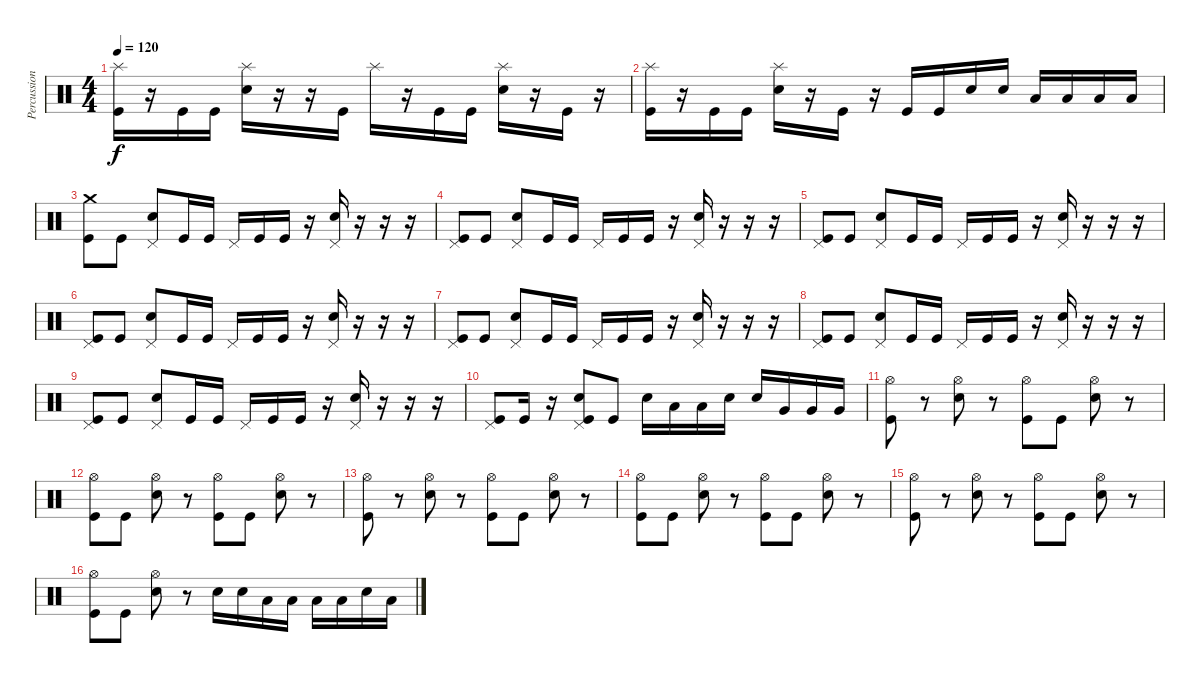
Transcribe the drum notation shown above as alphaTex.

\track ("Percussion" "Percussion") {instrument percussion}
\staff {score}
\articulation defaults
\ts (4 4)
\tempo 120
\clef neutral
\ks c
("Splash (hit)" "Kick (hit)").16{dy f} r.16 "Kick (hit)".16 "Kick (hit)".16 ("Splash (hit)" "Electric Snare (hit)").16 r.16 r.16 "Kick (hit)".16 "Splash (hit)".16 r.16 "Kick (hit)".16 "Kick (hit)".16 ("Splash (hit)" "Electric Snare (hit)").16 r.16 "Kick (hit)".16 r.16 |
("Splash (hit)" "Kick (hit)").16 r.16 "Kick (hit)".16 "Kick (hit)".16 ("Splash (hit)" "Electric Snare (hit)").16 r.16 "Kick (hit)".16 r.16 "Kick (hit)".16 "Kick (hit)".16 "Electric Snare (hit)".16 "Electric Snare (hit)".16 "Low Tom (hit)".16 "Low Tom (hit)".16 "Low Tom (hit)".16 "Low Tom (hit)".16 |
("Crash medium (hit)" "Kick (hit)").8 "Kick (hit)".8 ("Pedal Hi-Hat (hit)" "Electric Snare (hit)").8 "Kick (hit)".16 "Kick (hit)".16 "Pedal Hi-Hat (hit)".16 "Kick (hit)".16 "Kick (hit)".16 r.16 ("Pedal Hi-Hat (hit)" "Electric Snare (hit)").16 r.16 r.16 r.16 |
("Pedal Hi-Hat (hit)" "Kick (hit)").8 "Kick (hit)".8 ("Pedal Hi-Hat (hit)" "Electric Snare (hit)").8 "Kick (hit)".16 "Kick (hit)".16 "Pedal Hi-Hat (hit)".16 "Kick (hit)".16 "Kick (hit)".16 r.16 ("Pedal Hi-Hat (hit)" "Electric Snare (hit)").16 r.16 r.16 r.16 |
("Pedal Hi-Hat (hit)" "Kick (hit)").8 "Kick (hit)".8 ("Pedal Hi-Hat (hit)" "Electric Snare (hit)").8 "Kick (hit)".16 "Kick (hit)".16 "Pedal Hi-Hat (hit)".16 "Kick (hit)".16 "Kick (hit)".16 r.16 ("Pedal Hi-Hat (hit)" "Electric Snare (hit)").16 r.16 r.16 r.16 |
("Pedal Hi-Hat (hit)" "Kick (hit)").8 "Kick (hit)".8 ("Pedal Hi-Hat (hit)" "Electric Snare (hit)").8 "Kick (hit)".16 "Kick (hit)".16 "Pedal Hi-Hat (hit)".16 "Kick (hit)".16 "Kick (hit)".16 r.16 ("Pedal Hi-Hat (hit)" "Electric Snare (hit)").16 r.16 r.16 r.16 |
("Pedal Hi-Hat (hit)" "Kick (hit)").8 "Kick (hit)".8 ("Pedal Hi-Hat (hit)" "Electric Snare (hit)").8 "Kick (hit)".16 "Kick (hit)".16 "Pedal Hi-Hat (hit)".16 "Kick (hit)".16 "Kick (hit)".16 r.16 ("Pedal Hi-Hat (hit)" "Electric Snare (hit)").16 r.16 r.16 r.16 |
("Pedal Hi-Hat (hit)" "Kick (hit)").8 "Kick (hit)".8 ("Pedal Hi-Hat (hit)" "Electric Snare (hit)").8 "Kick (hit)".16 "Kick (hit)".16 "Pedal Hi-Hat (hit)".16 "Kick (hit)".16 "Kick (hit)".16 r.16 ("Pedal Hi-Hat (hit)" "Electric Snare (hit)").16 r.16 r.16 r.16 |
("Pedal Hi-Hat (hit)" "Kick (hit)").8 "Kick (hit)".8 ("Pedal Hi-Hat (hit)" "Electric Snare (hit)").8 "Kick (hit)".16 "Kick (hit)".16 "Pedal Hi-Hat (hit)".16 "Kick (hit)".16 "Kick (hit)".16 r.16 ("Pedal Hi-Hat (hit)" "Electric Snare (hit)").16 r.16 r.16 r.16 |
("Pedal Hi-Hat (hit)" "Kick (hit)").8 "Kick (hit)".16 r.16 ("Pedal Hi-Hat (hit)" "Electric Snare (hit)" "Kick (hit)").8 "Kick (hit)".8 "Electric Snare (hit)".16 "Low Tom (hit)".16 "Low Tom (hit)".16 "Electric Snare (hit)".16 "Electric Snare (hit)".16 "Very Low Tom (hit)".16 "Very Low Tom (hit)".16 "Very Low Tom (hit)".16 |
("Hi-Hat (open)" "Kick (hit)").8 r.8 ("Hi-Hat (open)" "Electric Snare (hit)").8 r.8 ("Hi-Hat (open)" "Kick (hit)").8 "Kick (hit)".8 ("Hi-Hat (open)" "Electric Snare (hit)").8 r.8 |
("Hi-Hat (open)" "Kick (hit)").8 "Kick (hit)".8 ("Hi-Hat (open)" "Electric Snare (hit)").8 r.8 ("Hi-Hat (open)" "Kick (hit)").8 "Kick (hit)".8 ("Hi-Hat (open)" "Electric Snare (hit)").8 r.8 |
("Hi-Hat (open)" "Kick (hit)").8 r.8 ("Hi-Hat (open)" "Electric Snare (hit)").8 r.8 ("Hi-Hat (open)" "Kick (hit)").8 "Kick (hit)".8 ("Hi-Hat (open)" "Electric Snare (hit)").8 r.8 |
("Hi-Hat (open)" "Kick (hit)").8 "Kick (hit)".8 ("Hi-Hat (open)" "Electric Snare (hit)").8 r.8 ("Hi-Hat (open)" "Kick (hit)").8 "Kick (hit)".8 ("Hi-Hat (open)" "Electric Snare (hit)").8 r.8 |
("Hi-Hat (open)" "Kick (hit)").8 r.8 ("Hi-Hat (open)" "Electric Snare (hit)").8 r.8 ("Hi-Hat (open)" "Kick (hit)").8 "Kick (hit)".8 ("Hi-Hat (open)" "Electric Snare (hit)").8 r.8 |
("Hi-Hat (open)" "Kick (hit)").8 "Kick (hit)".8 ("Hi-Hat (open)" "Electric Snare (hit)").8 r.8 "Electric Snare (hit)".16 "Electric Snare (hit)".16 "Low Tom (hit)".16 "Low Tom (hit)".16 "Low Tom (hit)".16 "Low Tom (hit)".16 "Electric Snare (hit)".16 "Low Tom (hit)".16
